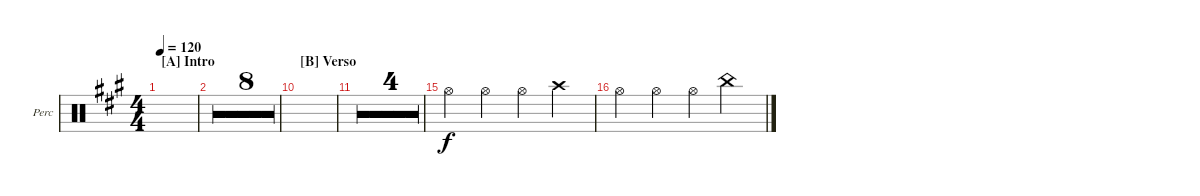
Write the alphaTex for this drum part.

\defaultSystemsLayout 4
\bracketExtendMode groupsimilarinstruments
\firstSystemTrackNameOrientation horizontal
\otherSystemsTrackNameOrientation horizontal
\track ("Percussão" "Perc") {multiBarRest instrument percussion}
\staff {score}
\articulation defaults
\ts (4 4)
\section ("A" "Intro")
\tempo 120
\clef neutral
\ks a
|
|
|
|
|
|
|
|
|
\section ("B" "Verso")
|
|
|
|
|
"Hi-Hat (open)".4 "Hi-Hat (open)".4 "Hi-Hat (open)".4 "Crash high (hit)".4 |
"Hi-Hat (open)".4 "Hi-Hat (open)".4 "Hi-Hat (open)".4 "China (hit)".4
